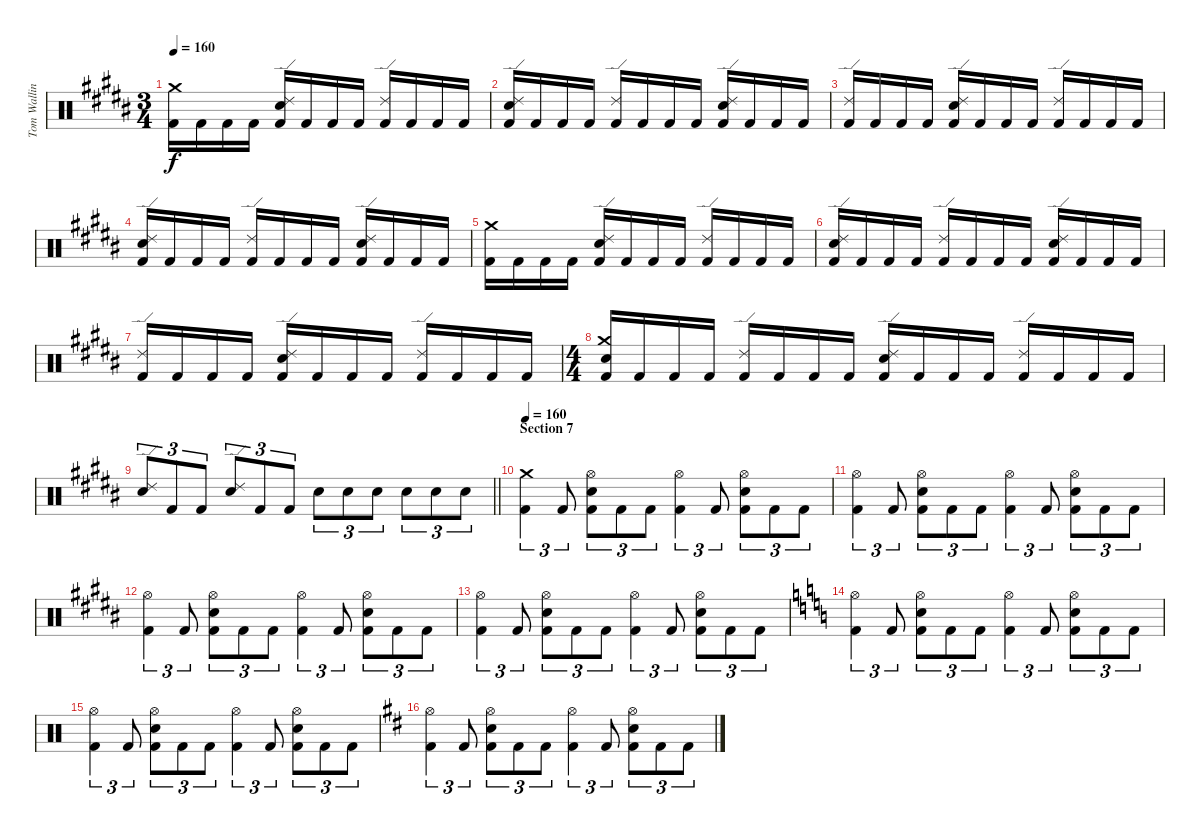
\track ("Tom Walling (drums)" "Tom Wallin") {instrument percussion}
\staff {score}
\articulation defaults
\ts (3 4)
\tempo 160
\clef neutral
\ks g#minor
("Kick (hit) 2" "Crash medium (hit)").16{dy f} "Kick (hit) 2".16 "Kick (hit) 2".16 "Kick (hit) 2".16 ("Electric Snare (hit)" "Kick (hit) 2" "Ride (edge) 2").16 "Kick (hit) 2".16 "Kick (hit) 2".16 "Kick (hit) 2".16 ("Kick (hit) 2" "Ride (edge) 2").16 "Kick (hit) 2".16 "Kick (hit) 2".16 "Kick (hit) 2".16 |
("Electric Snare (hit)" "Kick (hit) 2" "Ride (edge) 2").16 "Kick (hit) 2".16 "Kick (hit) 2".16 "Kick (hit) 2".16 ("Kick (hit) 2" "Ride (edge) 2").16 "Kick (hit) 2".16 "Kick (hit) 2".16 "Kick (hit) 2".16 ("Electric Snare (hit)" "Kick (hit) 2" "Ride (edge) 2").16 "Kick (hit) 2".16 "Kick (hit) 2".16 "Kick (hit) 2".16 |
("Ride (edge) 2" "Kick (hit) 2").16 "Kick (hit) 2".16 "Kick (hit) 2".16 "Kick (hit) 2".16 ("Electric Snare (hit)" "Kick (hit) 2" "Ride (edge) 2").16 "Kick (hit) 2".16 "Kick (hit) 2".16 "Kick (hit) 2".16 ("Kick (hit) 2" "Ride (edge) 2").16 "Kick (hit) 2".16 "Kick (hit) 2".16 "Kick (hit) 2".16 |
("Electric Snare (hit)" "Kick (hit) 2" "Ride (edge) 2").16 "Kick (hit) 2".16 "Kick (hit) 2".16 "Kick (hit) 2".16 ("Kick (hit) 2" "Ride (edge) 2").16 "Kick (hit) 2".16 "Kick (hit) 2".16 "Kick (hit) 2".16 ("Electric Snare (hit)" "Kick (hit) 2" "Ride (edge) 2").16 "Kick (hit) 2".16 "Kick (hit) 2".16 "Kick (hit) 2".16 |
("Kick (hit) 2" "Crash medium (hit)").16 "Kick (hit) 2".16 "Kick (hit) 2".16 "Kick (hit) 2".16 ("Electric Snare (hit)" "Kick (hit) 2" "Ride (edge) 2").16 "Kick (hit) 2".16 "Kick (hit) 2".16 "Kick (hit) 2".16 ("Kick (hit) 2" "Ride (edge) 2").16 "Kick (hit) 2".16 "Kick (hit) 2".16 "Kick (hit) 2".16 |
("Electric Snare (hit)" "Kick (hit) 2" "Ride (edge) 2").16 "Kick (hit) 2".16 "Kick (hit) 2".16 "Kick (hit) 2".16 ("Kick (hit) 2" "Ride (edge) 2").16 "Kick (hit) 2".16 "Kick (hit) 2".16 "Kick (hit) 2".16 ("Electric Snare (hit)" "Kick (hit) 2" "Ride (edge) 2").16 "Kick (hit) 2".16 "Kick (hit) 2".16 "Kick (hit) 2".16 |
("Ride (edge) 2" "Kick (hit) 2").16 "Kick (hit) 2".16 "Kick (hit) 2".16 "Kick (hit) 2".16 ("Electric Snare (hit)" "Kick (hit) 2" "Ride (edge) 2").16 "Kick (hit) 2".16 "Kick (hit) 2".16 "Kick (hit) 2".16 ("Kick (hit) 2" "Ride (edge) 2").16 "Kick (hit) 2".16 "Kick (hit) 2".16 "Kick (hit) 2".16 |
\ts (4 4)
("Crash medium (hit)" "Electric Snare (hit)" "Kick (hit) 2").16 "Kick (hit) 2".16 "Kick (hit) 2".16 "Kick (hit) 2".16 ("Kick (hit) 2" "Ride (edge) 2").16 "Kick (hit) 2".16 "Kick (hit) 2".16 "Kick (hit) 2".16 ("Electric Snare (hit)" "Kick (hit) 2" "Ride (edge) 2").16 "Kick (hit) 2".16 "Kick (hit) 2".16 "Kick (hit) 2".16 ("Ride (edge) 2" "Kick (hit) 2").16 "Kick (hit) 2".16 "Kick (hit) 2".16 "Kick (hit) 2".16 |
\barLineRight lightlight
("Ride (edge) 2" "Electric Snare (hit)").8{tu (3 2)} "Kick (hit) 2".8{tu (3 2)} "Kick (hit) 2".8{tu (3 2)} ("Ride (edge) 2" "Electric Snare (hit)").8{tu (3 2)} "Kick (hit) 2".8{tu (3 2)} "Kick (hit) 2".8{tu (3 2)} "Electric Snare (hit)".8{tu (3 2)} "Electric Snare (hit)".8{tu (3 2)} "Electric Snare (hit)".8{tu (3 2)} "Electric Snare (hit)".8{tu (3 2)} "Electric Snare (hit)".8{tu (3 2)} "Electric Snare (hit)".8{tu (3 2)} |
\section ("" "Section 7")
\tempo 160
("Crash medium (hit)" "Kick (hit) 2").4{tu (3 2) volume 16 balance 8} "Kick (hit) 2".8{tu (3 2)} ("Hi-Hat (open)" "Electric Snare (hit)" "Kick (hit) 2").8{tu (3 2)} "Kick (hit) 2".8{tu (3 2)} "Kick (hit) 2".8{tu (3 2)} ("Hi-Hat (open)" "Kick (hit) 2").4{tu (3 2)} "Kick (hit) 2".8{tu (3 2)} ("Hi-Hat (open)" "Electric Snare (hit)" "Kick (hit) 2").8{tu (3 2)} "Kick (hit) 2".8{tu (3 2)} "Kick (hit) 2".8{tu (3 2)} |
("Hi-Hat (open)" "Kick (hit) 2").4{tu (3 2)} "Kick (hit) 2".8{tu (3 2)} ("Hi-Hat (open)" "Electric Snare (hit)" "Kick (hit) 2").8{tu (3 2)} "Kick (hit) 2".8{tu (3 2)} "Kick (hit) 2".8{tu (3 2)} ("Hi-Hat (open)" "Kick (hit) 2").4{tu (3 2)} "Kick (hit) 2".8{tu (3 2)} ("Hi-Hat (open)" "Electric Snare (hit)" "Kick (hit) 2").8{tu (3 2)} "Kick (hit) 2".8{tu (3 2)} "Kick (hit) 2".8{tu (3 2)} |
("Hi-Hat (open)" "Kick (hit) 2").4{tu (3 2)} "Kick (hit) 2".8{tu (3 2)} ("Hi-Hat (open)" "Electric Snare (hit)" "Kick (hit) 2").8{tu (3 2)} "Kick (hit) 2".8{tu (3 2)} "Kick (hit) 2".8{tu (3 2)} ("Hi-Hat (open)" "Kick (hit) 2").4{tu (3 2)} "Kick (hit) 2".8{tu (3 2)} ("Hi-Hat (open)" "Electric Snare (hit)" "Kick (hit) 2").8{tu (3 2)} "Kick (hit) 2".8{tu (3 2)} "Kick (hit) 2".8{tu (3 2)} |
("Hi-Hat (open)" "Kick (hit) 2").4{tu (3 2)} "Kick (hit) 2".8{tu (3 2)} ("Hi-Hat (open)" "Electric Snare (hit)" "Kick (hit) 2").8{tu (3 2)} "Kick (hit) 2".8{tu (3 2)} "Kick (hit) 2".8{tu (3 2)} ("Hi-Hat (open)" "Kick (hit) 2").4{tu (3 2)} "Kick (hit) 2".8{tu (3 2)} ("Hi-Hat (open)" "Electric Snare (hit)" "Kick (hit) 2").8{tu (3 2)} "Kick (hit) 2".8{tu (3 2)} "Kick (hit) 2".8{tu (3 2)} |
\ks aminor
("Hi-Hat (open)" "Kick (hit) 2").4{tu (3 2)} "Kick (hit) 2".8{tu (3 2)} ("Hi-Hat (open)" "Electric Snare (hit)" "Kick (hit) 2").8{tu (3 2)} "Kick (hit) 2".8{tu (3 2)} "Kick (hit) 2".8{tu (3 2)} ("Hi-Hat (open)" "Kick (hit) 2").4{tu (3 2)} "Kick (hit) 2".8{tu (3 2)} ("Hi-Hat (open)" "Electric Snare (hit)" "Kick (hit) 2").8{tu (3 2)} "Kick (hit) 2".8{tu (3 2)} "Kick (hit) 2".8{tu (3 2)} |
("Hi-Hat (open)" "Kick (hit) 2").4{tu (3 2)} "Kick (hit) 2".8{tu (3 2)} ("Hi-Hat (open)" "Electric Snare (hit)" "Kick (hit) 2").8{tu (3 2)} "Kick (hit) 2".8{tu (3 2)} "Kick (hit) 2".8{tu (3 2)} ("Hi-Hat (open)" "Kick (hit) 2").4{tu (3 2)} "Kick (hit) 2".8{tu (3 2)} ("Hi-Hat (open)" "Electric Snare (hit)" "Kick (hit) 2").8{tu (3 2)} "Kick (hit) 2".8{tu (3 2)} "Kick (hit) 2".8{tu (3 2)} |
\ks bminor
("Hi-Hat (open)" "Kick (hit) 2").4{tu (3 2)} "Kick (hit) 2".8{tu (3 2)} ("Hi-Hat (open)" "Electric Snare (hit)" "Kick (hit) 2").8{tu (3 2)} "Kick (hit) 2".8{tu (3 2)} "Kick (hit) 2".8{tu (3 2)} ("Hi-Hat (open)" "Kick (hit) 2").4{tu (3 2)} "Kick (hit) 2".8{tu (3 2)} ("Hi-Hat (open)" "Electric Snare (hit)" "Kick (hit) 2").8{tu (3 2)} "Kick (hit) 2".8{tu (3 2)} "Kick (hit) 2".8{tu (3 2)}
